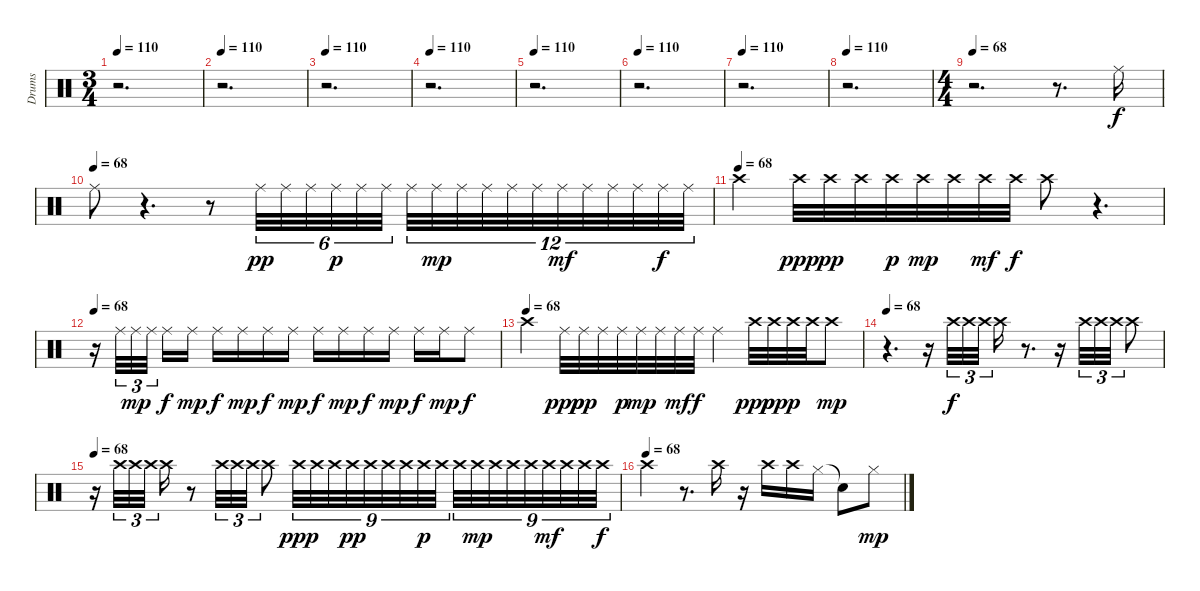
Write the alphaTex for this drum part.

\track ("Drums" "Drums") {instrument percussion}
\staff {score}
\articulation defaults
\ts (3 4)
\tempo 110
\clef neutral
\ks c
r.2{d dy ff} |
\tempo 110
r.2{d} |
\tempo 110
r.2{d} |
\tempo 110
r.2{d} |
\tempo 110
r.2{d} |
\tempo 110
r.2{d} |
\tempo 110
r.2{d} |
\tempo 110
r.2{d} |
\ts (4 4)
\tempo 68
r.2{d} r.8{d} "Ride (middle)".16{dy f} |
\tempo (68)
"Ride (middle)".8 r.4{d} r.8 "Ride (middle)".32{tu (6 4) dy pp} "Ride (middle)".32{tu (6 4)} "Ride (middle)".32{tu (6 4)} "Ride (middle)".32{tu (6 4) dy p} "Ride (middle)".32{tu (6 4)} "Ride (middle)".32{tu (6 4)} "Ride (middle)".32{tu (12 8)} "Ride (middle)".32{tu (12 8) dy mp} "Ride (middle)".32{tu (12 8)} "Ride (middle)".32{tu (12 8)} "Ride (middle)".32{tu (12 8)} "Ride (middle)".32{tu (12 8)} "Ride (middle)".32{tu (12 8) dy mf} "Ride (middle)".32{tu (12 8)} "Ride (middle)".32{tu (12 8)} "Ride (middle)".32{tu (12 8)} "Ride (middle)".32{tu (12 8) dy f} "Ride (middle)".32{tu (12 8)} |
\tempo (68)
"Crash high (hit)".4 "Crash high (hit)".32{dy ppp} "Crash high (hit)".32{dy pp} "Crash high (hit)".32 "Crash high (hit)".32{dy p} "Crash high (hit)".32{dy mp} "Crash high (hit)".32 "Crash high (hit)".32{dy mf} "Crash high (hit)".32{dy f} "Crash high (hit)".8 r.4{d} |
\tempo 68
r.16 "Ride (middle)".32{tu (3 2)} "Ride (middle)".32{tu (3 2) dy mp} "Ride (middle)".32{tu (3 2)} "Ride (middle)".16{dy f} "Ride (middle)".16{dy mp} "Ride (middle)".16{dy f} "Ride (middle)".16{dy mp} "Ride (middle)".16{dy f} "Ride (middle)".16{dy mp} "Ride (middle)".16{dy f} "Ride (middle)".16{dy mp} "Ride (middle)".16{dy f} "Ride (middle)".16{dy mp} "Ride (middle)".16{dy f} "Ride (middle)".16{dy mp} "Ride (middle)".8{dy f} |
\tempo (68)
"Crash high (hit)".4 "Ride (middle)".32{dy ppp} "Ride (middle)".32{dy pp} "Ride (middle)".32 "Ride (middle)".32{dy p} "Ride (middle)".32{dy mp} "Ride (middle)".32 "Ride (middle)".32{dy mf} "Ride (middle)".32{dy f} "Ride (middle)".4 "Crash high (hit)".32{dy ppp} "Crash high (hit)".32{dy pp} "Crash high (hit)".32{dy p} "Crash high (hit)".32 "Crash high (hit)".8{dy mp} |
\tempo 68
r.4{d} r.16 "Crash high (hit)".32{tu (3 2) dy f} "Crash high (hit)".32{tu (3 2)} "Crash high (hit)".32{tu (3 2)} "Crash high (hit)".16 r.8{d} r.16 "Crash high (hit)".32{tu (3 2)} "Crash high (hit)".32{tu (3 2)} "Crash high (hit)".32{tu (3 2)} "Crash high (hit)".8 |
\tempo 68
r.16 "Crash high (hit)".32{tu (3 2)} "Crash high (hit)".32{tu (3 2)} "Crash high (hit)".32{tu (3 2)} "Crash high (hit)".16 r.8 "Crash high (hit)".32{tu (3 2)} "Crash high (hit)".32{tu (3 2)} "Crash high (hit)".32{tu (3 2)} "Crash high (hit)".8 "Crash high (hit)".32{tu (9 8) dy ppp} "Crash high (hit)".32{tu (9 8)} "Crash high (hit)".32{tu (9 8)} "Crash high (hit)".32{tu (9 8) dy pp} "Crash high (hit)".32{tu (9 8)} "Crash high (hit)".32{tu (9 8)} "Crash high (hit)".32{tu (9 8)} "Crash high (hit)".32{tu (9 8) dy p} "Crash high (hit)".32{tu (9 8)} "Crash high (hit)".32{tu (9 8)} "Crash high (hit)".32{tu (9 8) dy mp} "Crash high (hit)".32{tu (9 8)} "Crash high (hit)".32{tu (9 8)} "Crash high (hit)".32{tu (9 8)} "Crash high (hit)".32{tu (9 8) dy mf} "Crash high (hit)".32{tu (9 8)} "Crash high (hit)".32{tu (9 8)} "Crash high (hit)".32{tu (9 8) dy f} |
\tempo (68)
"Crash high (hit)".4 r.8{d} "Crash high (hit)".16 r.16 "Crash high (hit)".16 "Crash high (hit)".16 "Hi-Hat (closed)".16 "Snare (hit)"{t}.8 "Hi-Hat (closed)".8{dy mp}
